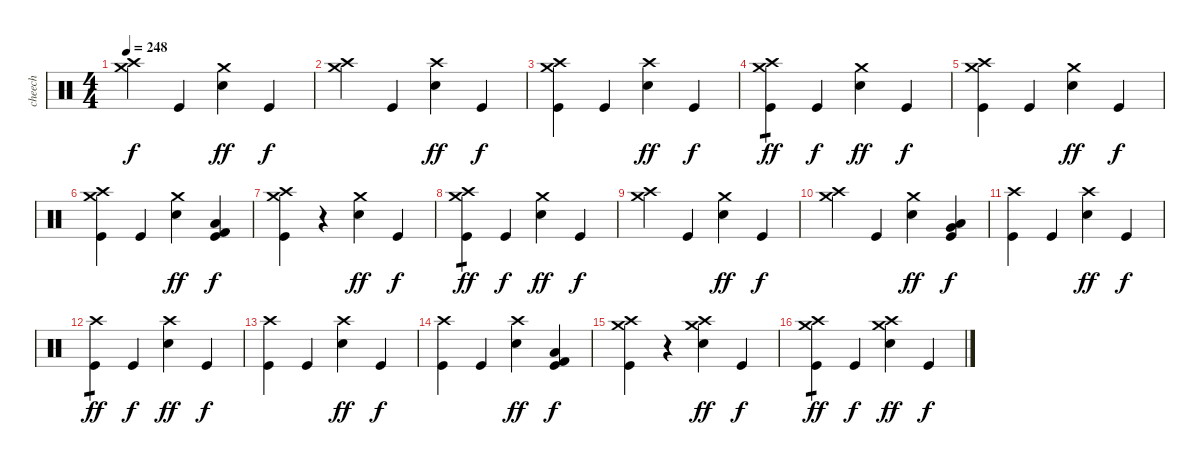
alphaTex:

\track ("cheech" "cheech") {instrument percussion}
\staff {score}
\articulation defaults
\ts (4 4)
\tempo 248
\clef neutral
\ks c
("Crash medium (hit)" "Crash high (hit)").4{dy f} "Kick (hit)".4 ("Crash medium (hit)" "Electric Snare (hit)").4{dy ff} "Kick (hit)".4{dy f} |
("Crash medium (hit)" "Crash high (hit)").4 "Kick (hit)".4 ("Crash high (hit)" "Electric Snare (hit)").4{dy ff} "Kick (hit)".4{dy f} |
("Crash medium (hit)" "Crash high (hit)" "Kick (hit)").4 "Kick (hit)".4 ("Crash high (hit)" "Electric Snare (hit)").4{dy ff} "Kick (hit)".4{dy f} |
("Crash medium (hit)" "Crash high (hit)" "Kick (hit)").4{tp 1 dy ff} "Kick (hit)".4{dy f} ("Crash medium (hit)" "Electric Snare (hit)").4{dy ff} "Kick (hit)".4{dy f} |
("Crash medium (hit)" "Crash high (hit)" "Kick (hit)").4 "Kick (hit)".4 ("Crash medium (hit)" "Electric Snare (hit)").4{dy ff} "Kick (hit)".4{dy f} |
("Crash medium (hit)" "Crash high (hit)" "Kick (hit)").4 "Kick (hit)".4 ("Crash medium (hit)" "Electric Snare (hit)").4{dy ff} ("Low Floor Tom (hit)" "Kick (hit) 2" "Kick (hit)").4{dy f} |
("Crash medium (hit)" "Crash high (hit)" "Kick (hit)").4 r.4 ("Crash medium (hit)" "Electric Snare (hit)").4{dy ff} "Kick (hit)".4{dy f} |
("Crash medium (hit)" "Crash high (hit)" "Kick (hit)").4{tp 1 dy ff} "Kick (hit)".4{dy f} ("Crash medium (hit)" "Electric Snare (hit)").4{dy ff} "Kick (hit)".4{dy f} |
("Crash medium (hit)" "Crash high (hit)").4 "Kick (hit)".4 ("Crash medium (hit)" "Electric Snare (hit)").4{dy ff} "Kick (hit)".4{dy f} |
("Crash medium (hit)" "Crash high (hit)").4 "Kick (hit)".4 ("Crash medium (hit)" "Electric Snare (hit)").4{dy ff} ("Very Low Tom (hit)" "Low Floor Tom (hit)" "Kick (hit)").4{dy f} |
("Crash high (hit)" "Kick (hit)").4 "Kick (hit)".4 ("Crash high (hit)" "Electric Snare (hit)").4{dy ff} "Kick (hit)".4{dy f} |
("Crash high (hit)" "Kick (hit)").4{tp 1 dy ff} "Kick (hit)".4{dy f} ("Crash high (hit)" "Electric Snare (hit)").4{dy ff} "Kick (hit)".4{dy f} |
("Crash high (hit)" "Kick (hit)").4 "Kick (hit)".4 ("Crash high (hit)" "Electric Snare (hit)").4{dy ff} "Kick (hit)".4{dy f} |
("Crash high (hit)" "Kick (hit)").4 "Kick (hit)".4 ("Crash high (hit)" "Electric Snare (hit)").4{dy ff} ("Low Floor Tom (hit)" "Kick (hit) 2" "Kick (hit)").4{dy f} |
("Crash high (hit)" "Crash medium (hit)" "Kick (hit)").4 r.4 ("Crash high (hit)" "Crash medium (hit)" "Electric Snare (hit)").4{dy ff} "Kick (hit)".4{dy f} |
("Crash high (hit)" "Crash medium (hit)" "Kick (hit)").4{tp 1 dy ff} "Kick (hit)".4{dy f} ("Crash high (hit)" "Crash medium (hit)" "Electric Snare (hit)").4{dy ff} "Kick (hit)".4{dy f}
